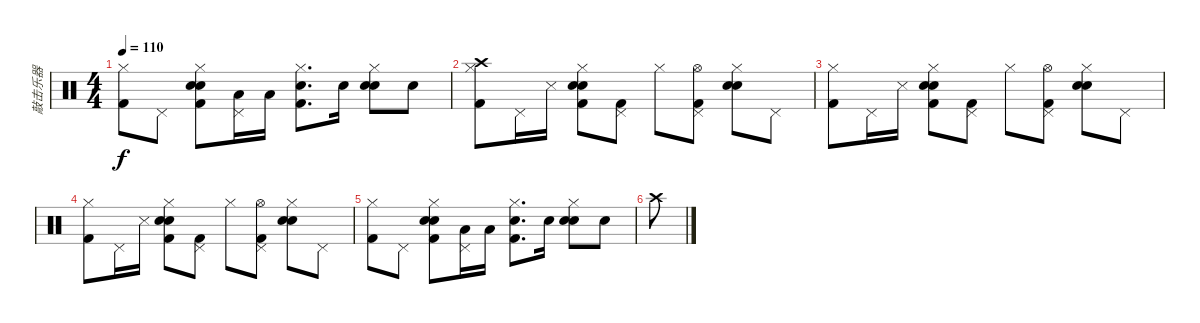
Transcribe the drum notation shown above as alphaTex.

\track ("敲击乐器" "敲击乐器") {instrument percussion}
\staff {score}
\articulation defaults
\ts (4 4)
\tempo 110
\clef neutral
\ks c
("Hi-Hat (closed)" "Kick (hit) 2").8{dy f} "Pedal Hi-Hat (hit)".8 ("Hand Clap (hit)" "Electric Snare (hit)" "Hi-Hat (closed)" "Kick (hit) 2").8 ("Pedal Hi-Hat (hit)" "Low Tom (hit)").16 "Low Tom (hit)".16 ("Electric Snare (hit)" "Hi-Hat (closed)" "Kick (hit) 2").8{d} "Snare (hit) 2".16 ("Hand Clap (hit)" "Electric Snare (hit)" "Hi-Hat (closed)").8 "Snare (hit) 2".8 |
("Crash high (hit)" "Hi-Hat (closed)" "Kick (hit) 2").8 "Pedal Hi-Hat (hit)".16 "Snare (side stick) 3".16 ("Hand Clap (hit)" "Electric Snare (hit)" "Hi-Hat (closed)" "Kick (hit) 2").8 ("Pedal Hi-Hat (hit)" "Kick (hit) 2").8 "Hi-Hat (closed)".8 ("Hi-Hat (open)" "Pedal Hi-Hat (hit)" "Kick (hit) 2").8 ("Hand Clap (hit)" "Electric Snare (hit)" "Hi-Hat (closed)").8 "Pedal Hi-Hat (hit)".8 |
("Hi-Hat (closed)" "Kick (hit) 2").8 "Pedal Hi-Hat (hit)".16 "Snare (side stick) 3".16 ("Hand Clap (hit)" "Electric Snare (hit)" "Hi-Hat (closed)" "Kick (hit) 2").8 ("Pedal Hi-Hat (hit)" "Kick (hit) 2").8 "Hi-Hat (closed)".8 ("Hi-Hat (open)" "Pedal Hi-Hat (hit)" "Kick (hit) 2").8 ("Hand Clap (hit)" "Electric Snare (hit)" "Hi-Hat (closed)").8 "Pedal Hi-Hat (hit)".8 |
("Hi-Hat (closed)" "Kick (hit) 2").8 "Pedal Hi-Hat (hit)".16 "Snare (side stick) 3".16 ("Hand Clap (hit)" "Electric Snare (hit)" "Hi-Hat (closed)" "Kick (hit) 2").8 ("Pedal Hi-Hat (hit)" "Kick (hit) 2").8 "Hi-Hat (closed)".8 ("Hi-Hat (open)" "Pedal Hi-Hat (hit)" "Kick (hit) 2").8 ("Hand Clap (hit)" "Electric Snare (hit)" "Hi-Hat (closed)").8 "Pedal Hi-Hat (hit)".8 |
("Hi-Hat (closed)" "Kick (hit) 2").8 "Pedal Hi-Hat (hit)".8 ("Hand Clap (hit)" "Electric Snare (hit)" "Hi-Hat (closed)" "Kick (hit) 2").8 ("Pedal Hi-Hat (hit)" "Low Tom (hit)").16 "Low Tom (hit)".16 ("Electric Snare (hit)" "Hi-Hat (closed)" "Kick (hit) 2").8{d} "Snare (hit) 2".16 ("Hand Clap (hit)" "Electric Snare (hit)" "Hi-Hat (closed)").8 "Snare (hit) 2".8 |
"Crash high (hit)".8
